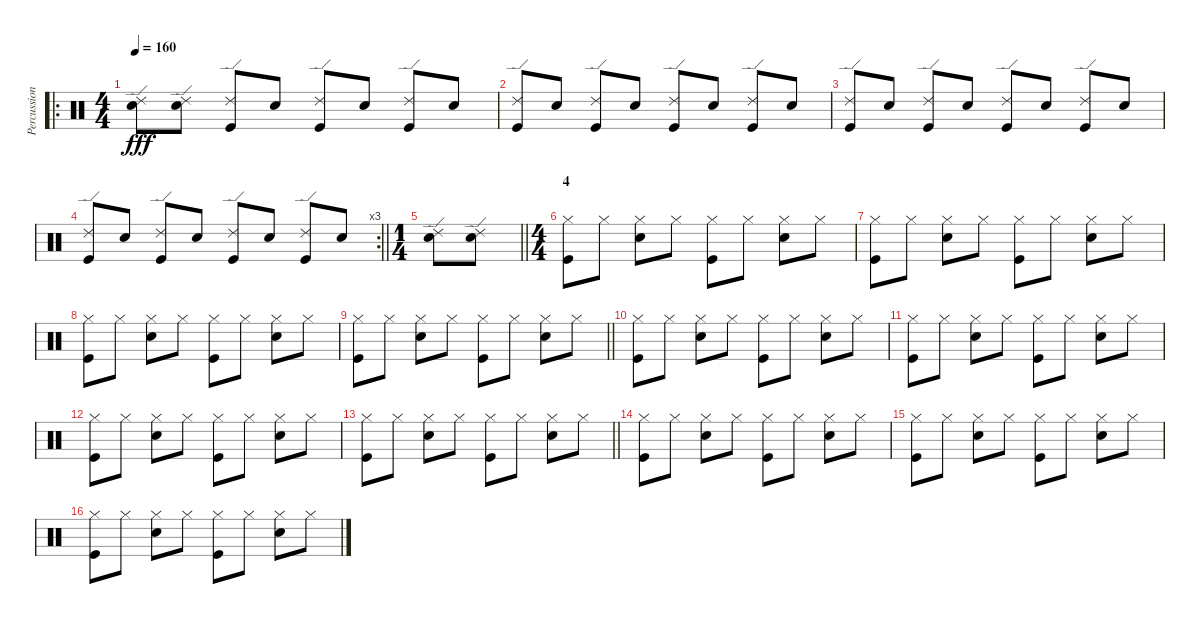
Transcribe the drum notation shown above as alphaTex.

\track ("Percussion" "Percussion") {instrument percussion}
\staff {score}
\articulation defaults
\ro
\ts (4 4)
\tempo 160
\clef neutral
\ks c
("Ride (edge) 2" "Snare (hit) 2").8{dy fff} ("Ride (edge) 2" "Snare (hit) 2").8 ("Ride (edge) 2" "Kick (hit)").8 "Snare (hit) 2".8 ("Ride (edge) 2" "Kick (hit)").8 "Snare (hit) 2".8 ("Ride (edge) 2" "Kick (hit)").8 "Snare (hit) 2".8 |
("Ride (edge) 2" "Kick (hit)").8 "Snare (hit) 2".8 ("Ride (edge) 2" "Kick (hit)").8 "Snare (hit) 2".8 ("Ride (edge) 2" "Kick (hit)").8 "Snare (hit) 2".8 ("Ride (edge) 2" "Kick (hit)").8 "Snare (hit) 2".8 |
("Ride (edge) 2" "Kick (hit)").8 "Snare (hit) 2".8 ("Ride (edge) 2" "Kick (hit)").8 "Snare (hit) 2".8 ("Ride (edge) 2" "Kick (hit)").8 "Snare (hit) 2".8 ("Ride (edge) 2" "Kick (hit)").8 "Snare (hit) 2".8 |
\rc 3
\barLineRight lightlight
("Ride (edge) 2" "Kick (hit)").8 "Snare (hit) 2".8 ("Ride (edge) 2" "Kick (hit)").8 "Snare (hit) 2".8 ("Ride (edge) 2" "Kick (hit)").8 "Snare (hit) 2".8 ("Ride (edge) 2" "Kick (hit)").8 "Snare (hit) 2".8 |
\ts (1 4)
\barLineRight lightlight
("Ride (edge) 2" "Snare (hit) 2").8 ("Ride (edge) 2" "Snare (hit) 2").8 |
\ts (4 4)
\section ("" "4")
("Hi-Hat (closed)" "Kick (hit)").8 "Hi-Hat (closed)".8 ("Hi-Hat (closed)" "Snare (hit) 2").8 "Hi-Hat (closed)".8 ("Hi-Hat (closed)" "Kick (hit)").8 "Hi-Hat (closed)".8 ("Hi-Hat (closed)" "Snare (hit) 2").8 "Hi-Hat (closed)".8 |
("Hi-Hat (closed)" "Kick (hit)").8 "Hi-Hat (closed)".8 ("Hi-Hat (closed)" "Snare (hit) 2").8 "Hi-Hat (closed)".8 ("Hi-Hat (closed)" "Kick (hit)").8 "Hi-Hat (closed)".8 ("Hi-Hat (closed)" "Snare (hit) 2").8 "Hi-Hat (closed)".8 |
("Hi-Hat (closed)" "Kick (hit)").8 "Hi-Hat (closed)".8 ("Hi-Hat (closed)" "Snare (hit) 2").8 "Hi-Hat (closed)".8 ("Hi-Hat (closed)" "Kick (hit)").8 "Hi-Hat (closed)".8 ("Hi-Hat (closed)" "Snare (hit) 2").8 "Hi-Hat (closed)".8 |
\barLineRight lightlight
("Hi-Hat (closed)" "Kick (hit)").8 "Hi-Hat (closed)".8 ("Hi-Hat (closed)" "Snare (hit) 2").8 "Hi-Hat (closed)".8 ("Hi-Hat (closed)" "Kick (hit)").8 "Hi-Hat (closed)".8 ("Hi-Hat (closed)" "Snare (hit) 2").8 "Hi-Hat (closed)".8 |
\section ("" "")
("Hi-Hat (closed)" "Kick (hit)").8 "Hi-Hat (closed)".8 ("Hi-Hat (closed)" "Snare (hit) 2").8 "Hi-Hat (closed)".8 ("Hi-Hat (closed)" "Kick (hit)").8 "Hi-Hat (closed)".8 ("Hi-Hat (closed)" "Snare (hit) 2").8 "Hi-Hat (closed)".8 |
("Hi-Hat (closed)" "Kick (hit)").8 "Hi-Hat (closed)".8 ("Hi-Hat (closed)" "Snare (hit) 2").8 "Hi-Hat (closed)".8 ("Hi-Hat (closed)" "Kick (hit)").8 "Hi-Hat (closed)".8 ("Hi-Hat (closed)" "Snare (hit) 2").8 "Hi-Hat (closed)".8 |
("Hi-Hat (closed)" "Kick (hit)").8 "Hi-Hat (closed)".8 ("Hi-Hat (closed)" "Snare (hit) 2").8 "Hi-Hat (closed)".8 ("Hi-Hat (closed)" "Kick (hit)").8 "Hi-Hat (closed)".8 ("Hi-Hat (closed)" "Snare (hit) 2").8 "Hi-Hat (closed)".8 |
\barLineRight lightlight
("Hi-Hat (closed)" "Kick (hit)").8 "Hi-Hat (closed)".8 ("Hi-Hat (closed)" "Snare (hit) 2").8 "Hi-Hat (closed)".8 ("Hi-Hat (closed)" "Kick (hit)").8 "Hi-Hat (closed)".8 ("Hi-Hat (closed)" "Snare (hit) 2").8 "Hi-Hat (closed)".8 |
\section ("" "")
("Hi-Hat (closed)" "Kick (hit)").8 "Hi-Hat (closed)".8 ("Hi-Hat (closed)" "Snare (hit) 2").8 "Hi-Hat (closed)".8 ("Hi-Hat (closed)" "Kick (hit)").8 "Hi-Hat (closed)".8 ("Hi-Hat (closed)" "Snare (hit) 2").8 "Hi-Hat (closed)".8 |
("Hi-Hat (closed)" "Kick (hit)").8 "Hi-Hat (closed)".8 ("Hi-Hat (closed)" "Snare (hit) 2").8 "Hi-Hat (closed)".8 ("Hi-Hat (closed)" "Kick (hit)").8 "Hi-Hat (closed)".8 ("Hi-Hat (closed)" "Snare (hit) 2").8 "Hi-Hat (closed)".8 |
("Hi-Hat (closed)" "Kick (hit)").8 "Hi-Hat (closed)".8 ("Hi-Hat (closed)" "Snare (hit) 2").8 "Hi-Hat (closed)".8 ("Hi-Hat (closed)" "Kick (hit)").8 "Hi-Hat (closed)".8 ("Hi-Hat (closed)" "Snare (hit) 2").8 "Hi-Hat (closed)".8
